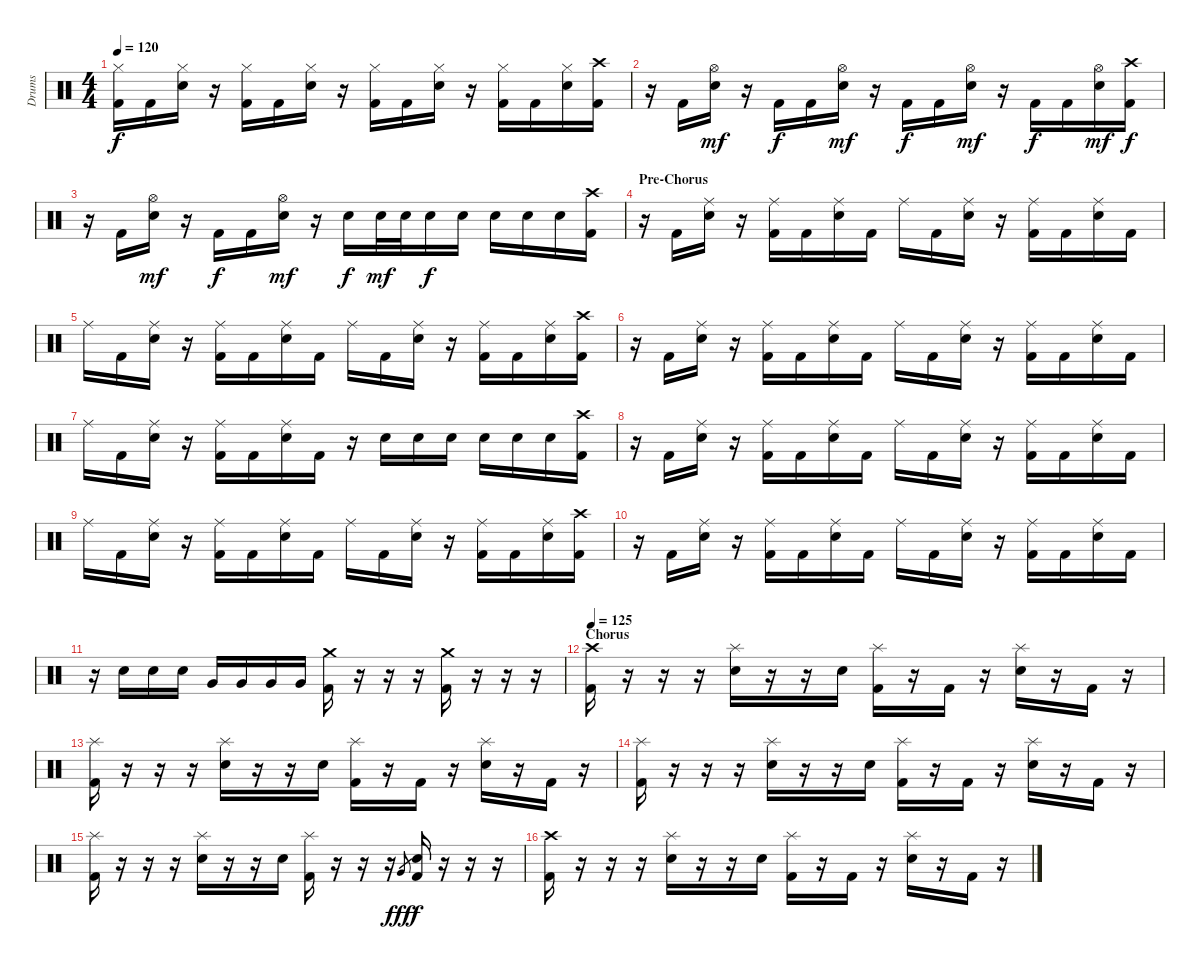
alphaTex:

\track ("Drums" "Drums") {instrument percussion}
\staff {score}
\articulation defaults
\ts (4 4)
\tempo 120
\clef neutral
\ks c
("Hi-Hat (closed)" "Kick (hit) 2").16{dy f} "Kick (hit) 2".16 ("Hi-Hat (closed)" "Electric Snare (hit)").16 r.16 ("Hi-Hat (closed)" "Kick (hit) 2").16 "Kick (hit) 2".16 ("Hi-Hat (closed)" "Electric Snare (hit)").16 r.16 ("Hi-Hat (closed)" "Kick (hit) 2").16 "Kick (hit) 2".16 ("Hi-Hat (closed)" "Electric Snare (hit)").16 r.16 ("Hi-Hat (closed)" "Kick (hit) 2").16 "Kick (hit) 2".16 ("Hi-Hat (closed)" "Electric Snare (hit)").16 ("Crash high (hit)" "Kick (hit) 2").16 |
r.16 "Kick (hit) 2".16 ("Hi-Hat (open)" "Electric Snare (hit)").16{dy mf} r.16 "Kick (hit) 2".16{dy f} "Kick (hit) 2".16 ("Hi-Hat (open)" "Electric Snare (hit)").16{dy mf} r.16 "Kick (hit) 2".16{dy f} "Kick (hit) 2".16 ("Hi-Hat (open)" "Electric Snare (hit)").16{dy mf} r.16 "Kick (hit) 2".16{dy f} "Kick (hit) 2".16 ("Hi-Hat (open)" "Electric Snare (hit)").16{dy mf} ("Crash high (hit)" "Kick (hit) 2").16{dy f} |
r.16 "Kick (hit) 2".16 ("Hi-Hat (open)" "Electric Snare (hit)").16{dy mf} r.16 "Kick (hit) 2".16{dy f} "Kick (hit) 2".16 ("Hi-Hat (open)" "Electric Snare (hit)").16{dy mf} r.16 "Electric Snare (hit)".16{dy f} "Electric Snare (hit)".32{dy mf} "Electric Snare (hit)".32 "Electric Snare (hit)".16{dy f} "Electric Snare (hit)".16 "Electric Snare (hit)".16 "Electric Snare (hit)".16 "Electric Snare (hit)".16 ("Crash high (hit)" "Kick (hit) 2").16 |
\section ("" "Pre-Chorus")
r.16 "Kick (hit) 2".16 ("Ride (middle)" "Electric Snare (hit)").16 r.16 ("Ride (middle)" "Kick (hit) 2").16 "Kick (hit) 2".16 ("Ride (middle)" "Electric Snare (hit)").16 "Kick (hit) 2".16 "Ride (middle)".16 "Kick (hit) 2".16 ("Ride (middle)" "Electric Snare (hit)").16 r.16 ("Ride (middle)" "Kick (hit) 2").16 "Kick (hit) 2".16 ("Ride (middle)" "Electric Snare (hit)").16 "Kick (hit) 2".16 |
"Ride (middle)".16 "Kick (hit) 2".16 ("Ride (middle)" "Electric Snare (hit)").16 r.16 ("Ride (middle)" "Kick (hit) 2").16 "Kick (hit) 2".16 ("Ride (middle)" "Electric Snare (hit)").16 "Kick (hit) 2".16 "Ride (middle)".16 "Kick (hit) 2".16 ("Ride (middle)" "Electric Snare (hit)").16 r.16 ("Ride (middle)" "Kick (hit) 2").16 "Kick (hit) 2".16 ("Ride (middle)" "Electric Snare (hit)").16 ("Crash high (hit)" "Kick (hit) 2").16 |
r.16 "Kick (hit) 2".16 ("Ride (middle)" "Electric Snare (hit)").16 r.16 ("Ride (middle)" "Kick (hit) 2").16 "Kick (hit) 2".16 ("Ride (middle)" "Electric Snare (hit)").16 "Kick (hit) 2".16 "Ride (middle)".16 "Kick (hit) 2".16 ("Ride (middle)" "Electric Snare (hit)").16 r.16 ("Ride (middle)" "Kick (hit) 2").16 "Kick (hit) 2".16 ("Ride (middle)" "Electric Snare (hit)").16 "Kick (hit) 2".16 |
"Ride (middle)".16 "Kick (hit) 2".16 ("Ride (middle)" "Electric Snare (hit)").16 r.16 ("Ride (middle)" "Kick (hit) 2").16 "Kick (hit) 2".16 ("Ride (middle)" "Electric Snare (hit)").16 "Kick (hit) 2".16 r.16 "Electric Snare (hit)".16 "Electric Snare (hit)".16 "Electric Snare (hit)".16 "Electric Snare (hit)".16 "Electric Snare (hit)".16 "Electric Snare (hit)".16 ("Crash high (hit)" "Kick (hit) 2").16 |
r.16 "Kick (hit) 2".16 ("Ride (middle)" "Electric Snare (hit)").16 r.16 ("Ride (middle)" "Kick (hit) 2").16 "Kick (hit) 2".16 ("Ride (middle)" "Electric Snare (hit)").16 "Kick (hit) 2".16 "Ride (middle)".16 "Kick (hit) 2".16 ("Ride (middle)" "Electric Snare (hit)").16 r.16 ("Ride (middle)" "Kick (hit) 2").16 "Kick (hit) 2".16 ("Ride (middle)" "Electric Snare (hit)").16 "Kick (hit) 2".16 |
"Ride (middle)".16 "Kick (hit) 2".16 ("Ride (middle)" "Electric Snare (hit)").16 r.16 ("Ride (middle)" "Kick (hit) 2").16 "Kick (hit) 2".16 ("Ride (middle)" "Electric Snare (hit)").16 "Kick (hit) 2".16 "Ride (middle)".16 "Kick (hit) 2".16 ("Ride (middle)" "Electric Snare (hit)").16 r.16 ("Ride (middle)" "Kick (hit) 2").16 "Kick (hit) 2".16 ("Ride (middle)" "Electric Snare (hit)").16 ("Crash high (hit)" "Kick (hit) 2").16 |
r.16 "Kick (hit) 2".16 ("Ride (middle)" "Electric Snare (hit)").16 r.16 ("Ride (middle)" "Kick (hit) 2").16 "Kick (hit) 2".16 ("Ride (middle)" "Electric Snare (hit)").16 "Kick (hit) 2".16 "Ride (middle)".16 "Kick (hit) 2".16 ("Ride (middle)" "Electric Snare (hit)").16 r.16 ("Ride (middle)" "Kick (hit) 2").16 "Kick (hit) 2".16 ("Ride (middle)" "Electric Snare (hit)").16 "Kick (hit) 2".16 |
r.16 "Electric Snare (hit)".16 "Electric Snare (hit)".16 "Electric Snare (hit)".16 "Very Low Tom (hit)".16 "Very Low Tom (hit)".16 "Very Low Tom (hit)".16 "Very Low Tom (hit)".16 ("Crash medium (hit)" "Kick (hit) 2").16 r.16 r.16 r.16 ("Crash medium (hit)" "Kick (hit) 2").16 r.16 r.16 r.16 |
\section ("" "Chorus")
\tempo 125
("Crash high (hit)" "Kick (hit) 2").16 r.16 r.16 r.16 ("Splash (hit)" "Electric Snare (hit)").16 r.16 r.16 "Electric Snare (hit)".16 ("Splash (hit)" "Kick (hit) 2").16 r.16 "Kick (hit) 2".16 r.16 ("Splash (hit)" "Electric Snare (hit)").16 r.16 "Kick (hit) 2".16 r.16 |
("Splash (hit)" "Kick (hit) 2").16 r.16 r.16 r.16 ("Splash (hit)" "Electric Snare (hit)").16 r.16 r.16 "Electric Snare (hit)".16 ("Splash (hit)" "Kick (hit) 2").16 r.16 "Kick (hit) 2".16 r.16 ("Splash (hit)" "Electric Snare (hit)").16 r.16 "Kick (hit) 2".16 r.16 |
("Splash (hit)" "Kick (hit) 2").16 r.16 r.16 r.16 ("Splash (hit)" "Electric Snare (hit)").16 r.16 r.16 "Electric Snare (hit)".16 ("Splash (hit)" "Kick (hit) 2").16 r.16 "Kick (hit) 2".16 r.16 ("Splash (hit)" "Electric Snare (hit)").16 r.16 "Kick (hit) 2".16 r.16 |
("Splash (hit)" "Kick (hit) 2").16 r.16 r.16 r.16 ("Splash (hit)" "Electric Snare (hit)").16 r.16 r.16 "Electric Snare (hit)".16 ("Splash (hit)" "Kick (hit) 2").16 r.16 r.16 r.16 "Very Low Tom (hit)".8{gr dy fff} ("Electric Snare (hit)" "Kick (hit) 2").16{dy f} r.16 r.16 r.16 |
("Crash high (hit)" "Kick (hit) 2").16 r.16 r.16 r.16 ("Splash (hit)" "Electric Snare (hit)").16 r.16 r.16 "Electric Snare (hit)".16 ("Splash (hit)" "Kick (hit) 2").16 r.16 "Kick (hit) 2".16 r.16 ("Splash (hit)" "Electric Snare (hit)").16 r.16 "Kick (hit) 2".16 r.16
